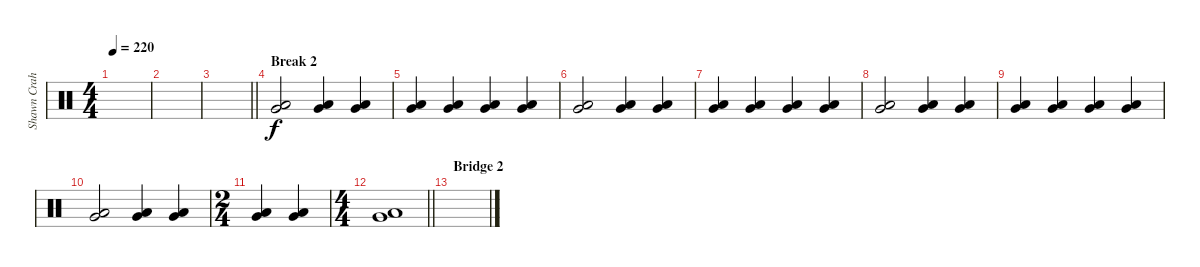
\track ("Shawn Crahan" "Shawn Crah") {instrument percussion}
\staff {score}
\articulation defaults
\ts (4 4)
\tempo 220
\clef neutral
\ks c
|
|
\barLineRight lightlight
|
\section ("" "Break 2")
("Very Low Tom (hit)" "Low Floor Tom (hit)").2 ("Very Low Tom (hit)" "Low Floor Tom (hit)").4 ("Very Low Tom (hit)" "Low Floor Tom (hit)").4 |
("Very Low Tom (hit)" "Low Floor Tom (hit)").4 ("Very Low Tom (hit)" "Low Floor Tom (hit)").4 ("Very Low Tom (hit)" "Low Floor Tom (hit)").4 ("Very Low Tom (hit)" "Low Floor Tom (hit)").4 |
("Very Low Tom (hit)" "Low Floor Tom (hit)").2 ("Very Low Tom (hit)" "Low Floor Tom (hit)").4 ("Very Low Tom (hit)" "Low Floor Tom (hit)").4 |
("Very Low Tom (hit)" "Low Floor Tom (hit)").4 ("Very Low Tom (hit)" "Low Floor Tom (hit)").4 ("Very Low Tom (hit)" "Low Floor Tom (hit)").4 ("Very Low Tom (hit)" "Low Floor Tom (hit)").4 |
("Very Low Tom (hit)" "Low Floor Tom (hit)").2 ("Very Low Tom (hit)" "Low Floor Tom (hit)").4 ("Very Low Tom (hit)" "Low Floor Tom (hit)").4 |
("Very Low Tom (hit)" "Low Floor Tom (hit)").4 ("Very Low Tom (hit)" "Low Floor Tom (hit)").4 ("Very Low Tom (hit)" "Low Floor Tom (hit)").4 ("Very Low Tom (hit)" "Low Floor Tom (hit)").4 |
("Very Low Tom (hit)" "Low Floor Tom (hit)").2 ("Very Low Tom (hit)" "Low Floor Tom (hit)").4 ("Very Low Tom (hit)" "Low Floor Tom (hit)").4 |
\ts (2 4)
("Very Low Tom (hit)" "Low Floor Tom (hit)").4 ("Very Low Tom (hit)" "Low Floor Tom (hit)").4 |
\ts (4 4)
\barLineRight lightlight
("Very Low Tom (hit)" "Low Floor Tom (hit)").1 |
\section ("" "Bridge 2")
